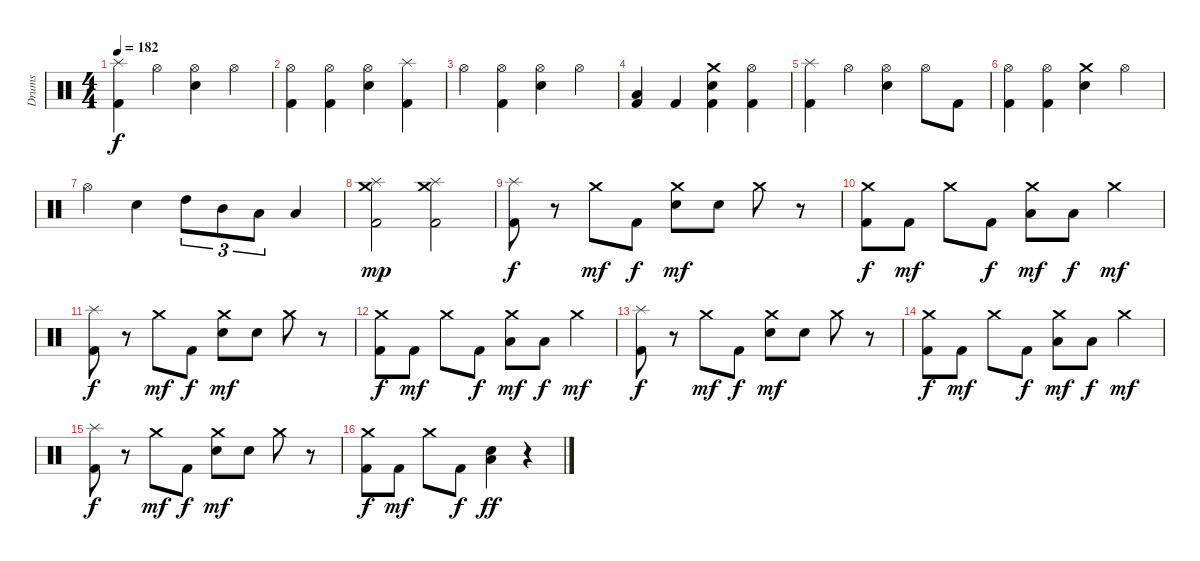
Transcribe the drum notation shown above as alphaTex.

\track ("Drums" "Drums") {instrument percussion}
\staff {score}
\articulation defaults
\ts (4 4)
\tempo 182
\clef neutral
\ks c
("Splash (hit)" "Kick (hit) 2").4{dy f} "Hi-Hat (open)".4 ("Hi-Hat (open)" "Snare (hit) 2").4 "Hi-Hat (open)".4 |
("Hi-Hat (open)" "Kick (hit) 2").4 ("Hi-Hat (open)" "Kick (hit) 2").4 ("Hi-Hat (open)" "Snare (hit) 2").4 ("Splash (hit)" "Kick (hit) 2").4 |
"Hi-Hat (open)".4 ("Hi-Hat (open)" "Kick (hit) 2").4 ("Hi-Hat (open)" "Snare (hit) 2").4 "Hi-Hat (open)".4 |
("Low Tom (hit)" "Kick (hit) 2").4 "Kick (hit) 2".4 ("Crash medium (hit)" "Snare (hit) 2" "Kick (hit) 2").4 ("Hi-Hat (open)" "Kick (hit) 2").4 |
("Splash (hit)" "Kick (hit) 2").4 "Hi-Hat (open)".4 ("Hi-Hat (open)" "Snare (hit) 2").4 "Hi-Hat (open)".8 "Kick (hit) 2".8 |
("Hi-Hat (open)" "Kick (hit) 2").4 ("Hi-Hat (open)" "Kick (hit) 2").4 ("Crash medium (hit)" "Snare (hit) 2").4 "Hi-Hat (open)".4 |
"Hi-Hat (open)".4 "Snare (hit) 2".4 "High Tom (hit)".8{tu (3 2)} "Mid Tom (hit)".8{tu (3 2)} "Low Tom (hit)".8{tu (3 2)} "Low Floor Tom (hit)".4 |
("Crash medium (hit)" "Splash (hit)" "Kick (hit) 2").2{dy mp} ("Crash medium (hit)" "Splash (hit)" "Kick (hit) 2").2 |
("Splash (hit)" "Kick (hit) 2").8{dy f} r.8 "Crash medium (hit)".8{dy mf} "Kick (hit) 2".8{dy f} ("Crash medium (hit)" "Snare (hit) 2").8{dy mf} "Snare (hit) 2".8 "Crash medium (hit)".8 r.8 |
("Crash medium (hit)" "Kick (hit) 2").8{dy f} "Kick (hit) 2".8{dy mf} "Crash medium (hit)".8 "Kick (hit) 2".8{dy f} ("Crash medium (hit)" "Low Tom (hit)").8{dy mf} "Low Floor Tom (hit)".8{dy f} "Crash medium (hit)".4{dy mf} |
("Splash (hit)" "Kick (hit) 2").8{dy f} r.8 "Crash medium (hit)".8{dy mf} "Kick (hit) 2".8{dy f} ("Crash medium (hit)" "Snare (hit) 2").8{dy mf} "Snare (hit) 2".8 "Crash medium (hit)".8 r.8 |
("Crash medium (hit)" "Kick (hit) 2").8{dy f} "Kick (hit) 2".8{dy mf} "Crash medium (hit)".8 "Kick (hit) 2".8{dy f} ("Crash medium (hit)" "Low Tom (hit)").8{dy mf} "Low Floor Tom (hit)".8{dy f} "Crash medium (hit)".4{dy mf} |
("Splash (hit)" "Kick (hit) 2").8{dy f} r.8 "Crash medium (hit)".8{dy mf} "Kick (hit) 2".8{dy f} ("Crash medium (hit)" "Snare (hit) 2").8{dy mf} "Snare (hit) 2".8 "Crash medium (hit)".8 r.8 |
("Crash medium (hit)" "Kick (hit) 2").8{dy f} "Kick (hit) 2".8{dy mf} "Crash medium (hit)".8 "Kick (hit) 2".8{dy f} ("Crash medium (hit)" "Low Tom (hit)").8{dy mf} "Low Floor Tom (hit)".8{dy f} "Crash medium (hit)".4{dy mf} |
("Splash (hit)" "Kick (hit) 2").8{dy f} r.8 "Crash medium (hit)".8{dy mf} "Kick (hit) 2".8{dy f} ("Crash medium (hit)" "Snare (hit) 2").8{dy mf} "Snare (hit) 2".8 "Crash medium (hit)".8 r.8 |
("Crash medium (hit)" "Kick (hit) 2").8{dy f} "Kick (hit) 2".8{dy mf} "Crash medium (hit)".8 "Kick (hit) 2".8{dy f} ("Low Floor Tom (hit)" "Snare (hit) 2").4{dy ff} r.4
